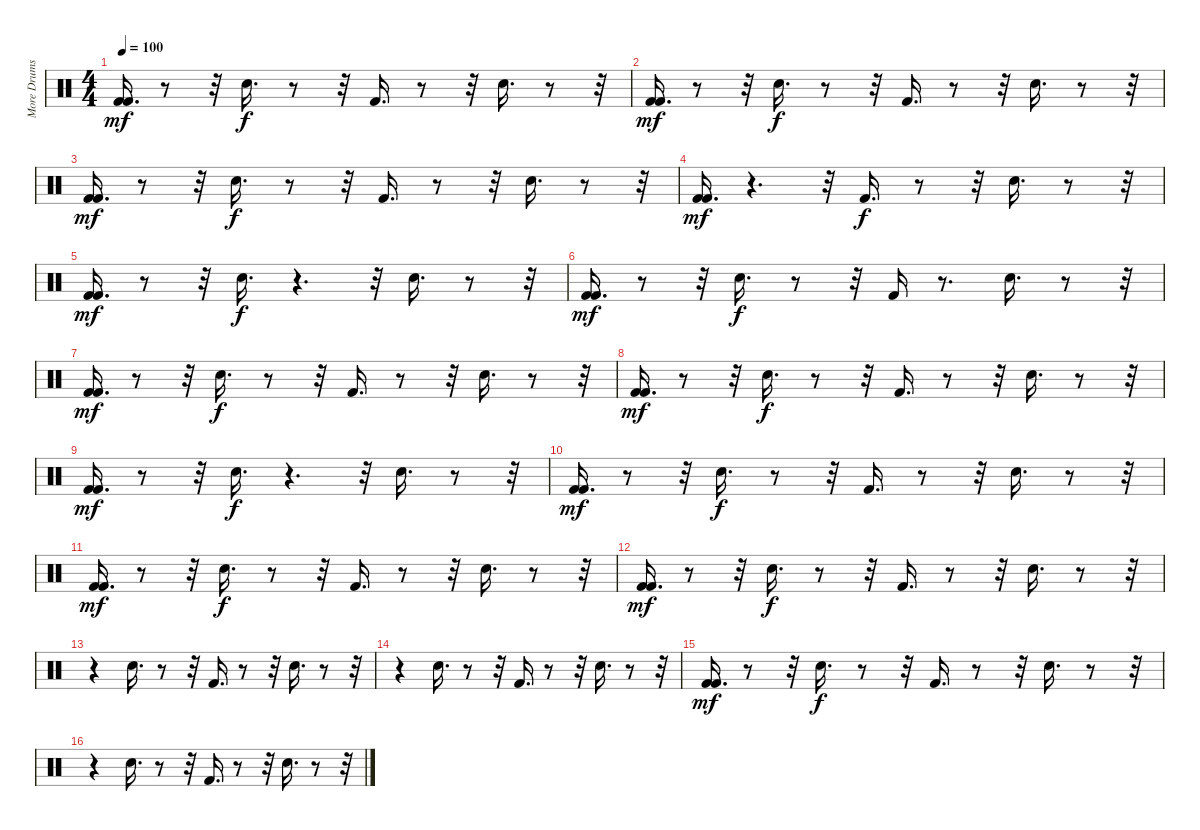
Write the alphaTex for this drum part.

\track ("More Drums" "More Drums") {instrument percussion}
\staff {score}
\articulation defaults
\ts (4 4)
\tempo 100
\clef neutral
\ks c
("Kick (hit) 2" "Kick (hit) 2").16{d dy mf} r.8 r.32 "Electric Snare (hit)".16{d dy f} r.8 r.32 "Kick (hit) 2".16{d} r.8 r.32 "Electric Snare (hit)".16{d} r.8 r.32 |
("Kick (hit) 2" "Kick (hit) 2").16{d dy mf} r.8 r.32 "Electric Snare (hit)".16{d dy f} r.8 r.32 "Kick (hit) 2".16{d} r.8 r.32 "Electric Snare (hit)".16{d} r.8 r.32 |
("Kick (hit) 2" "Kick (hit) 2").16{d dy mf} r.8 r.32 "Electric Snare (hit)".16{d dy f} r.8 r.32 "Kick (hit) 2".16{d} r.8 r.32 "Electric Snare (hit)".16{d} r.8 r.32 |
("Kick (hit) 2" "Kick (hit) 2").16{d dy mf} r.4{d} r.32 "Kick (hit) 2".16{d dy f} r.8 r.32 "Electric Snare (hit)".16{d} r.8 r.32 |
("Kick (hit) 2" "Kick (hit) 2").16{d dy mf} r.8 r.32 "Electric Snare (hit)".16{d dy f} r.4{d} r.32 "Electric Snare (hit)".16{d} r.8 r.32 |
("Kick (hit) 2" "Kick (hit) 2").16{d dy mf} r.8 r.32 "Electric Snare (hit)".16{d dy f} r.8 r.32 "Kick (hit) 2".16 r.8{d} "Electric Snare (hit)".16{d} r.8 r.32 |
("Kick (hit) 2" "Kick (hit) 2").16{d dy mf} r.8 r.32 "Electric Snare (hit)".16{d dy f} r.8 r.32 "Kick (hit) 2".16{d} r.8 r.32 "Electric Snare (hit)".16{d} r.8 r.32 |
("Kick (hit) 2" "Kick (hit) 2").16{d dy mf} r.8 r.32 "Electric Snare (hit)".16{d dy f} r.8 r.32 "Kick (hit) 2".16{d} r.8 r.32 "Electric Snare (hit)".16{d} r.8 r.32 |
("Kick (hit) 2" "Kick (hit) 2").16{d dy mf} r.8 r.32 "Electric Snare (hit)".16{d dy f} r.4{d} r.32 "Electric Snare (hit)".16{d} r.8 r.32 |
("Kick (hit) 2" "Kick (hit) 2").16{d dy mf} r.8 r.32 "Electric Snare (hit)".16{d dy f} r.8 r.32 "Kick (hit) 2".16{d} r.8 r.32 "Electric Snare (hit)".16{d} r.8 r.32 |
("Kick (hit) 2" "Kick (hit) 2").16{d dy mf} r.8 r.32 "Electric Snare (hit)".16{d dy f} r.8 r.32 "Kick (hit) 2".16{d} r.8 r.32 "Electric Snare (hit)".16{d} r.8 r.32 |
("Kick (hit) 2" "Kick (hit) 2").16{d dy mf} r.8 r.32 "Electric Snare (hit)".16{d dy f} r.8 r.32 "Kick (hit) 2".16{d} r.8 r.32 "Electric Snare (hit)".16{d} r.8 r.32 |
r.4 "Electric Snare (hit)".16{d} r.8 r.32 "Kick (hit) 2".16{d} r.8 r.32 "Electric Snare (hit)".16{d} r.8 r.32 |
r.4 "Electric Snare (hit)".16{d} r.8 r.32 "Kick (hit) 2".16{d} r.8 r.32 "Electric Snare (hit)".16{d} r.8 r.32 |
("Kick (hit) 2" "Kick (hit) 2").16{d dy mf} r.8 r.32 "Electric Snare (hit)".16{d dy f} r.8 r.32 "Kick (hit) 2".16{d} r.8 r.32 "Electric Snare (hit)".16{d} r.8 r.32 |
r.4 "Electric Snare (hit)".16{d} r.8 r.32 "Kick (hit) 2".16{d} r.8 r.32 "Electric Snare (hit)".16{d} r.8 r.32
